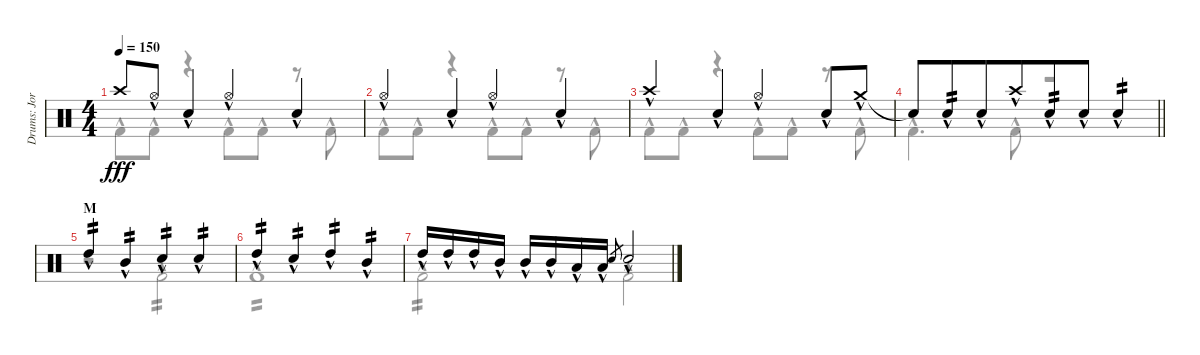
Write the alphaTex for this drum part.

\track ("Drums: Jorg" "Drums: Jor") {instrument percussion}
\staff {score}
\articulation defaults
\voice
\ts (4 4)
\tempo 150
\clef neutral
\ks c "Crash high (hit)"{t}.8{dy fff} "Hi-Hat (open)"{hac}.8{beam merge} "Snare (hit) 2"{hac}.4 "Hi-Hat (open)"{hac}.4{beam merge} "Snare (hit) 2"{hac}.4
|
"Hi-Hat (open)"{hac}.4{beam merge} "Snare (hit) 2"{hac}.4 "Hi-Hat (open)"{hac}.4{beam merge} "Snare (hit) 2"{hac}.4 |
"Crash high (hit)"{hac}.4{beam merge} "Snare (hit) 2"{hac}.4 "Hi-Hat (open)"{hac}.4{beam merge} "Snare (hit) 2"{hac}.8 "Crash medium (hit)"{hac}.8 |
\barLineRight lightlight "Snare (hit)"{t}.8{beam merge} "Snare (hit) 2"{hac}.8{tp 2 beam merge} "Snare (hit) 2"{hac}.8 "Crash high (hit)"{hac}.8{beam merge} "Snare (hit) 2"{hac}.8{tp 2} "Snare (hit) 2"{hac}.8 "Snare (hit) 2"{hac}.4{tp 2}
|
\section ("" "M")
"High Tom (hit)"{hac}.4{tp 2} "Mid Tom (hit)"{hac}.4{tp 2} "Electric Snare (hit)"{hac}.4{tp 2} "Snare (hit) 2"{hac}.4{tp 2} |
"High Tom (hit)"{hac}.4{tp 2} "Electric Snare (hit)"{hac}.4{tp 2} "High Tom (hit)"{hac}.4{tp 2} "Mid Tom (hit)"{hac}.4{tp 2} |
"High Tom (hit)"{hac}.16 "High Tom (hit)"{hac}.16 "High Tom (hit)"{hac}.16 "Mid Tom (hit)"{hac}.16 "Mid Tom (hit)"{hac}.16 "Mid Tom (hit)"{hac}.16 "Low Tom (hit)"{hac}.16 "Low Tom (hit)"{hac}.16 "Electric Snare (hit)".8{gr} "Snare (hit) 2"{hac}.2
\voice
\clef neutral
\ottava regular
\simile none
\ks c "Kick (hit) 2"{hac}.8{dy fff} "Kick (hit) 2"{hac}.8
r.4 "Kick (hit) 2"{hac}.8 "Kick (hit) 2"{hac}.8 r.8 "Kick (hit) 2"{hac}.8 |
"Kick (hit) 2"{hac}.8 "Kick (hit) 2"{hac}.8 r.4 "Kick (hit) 2"{hac}.8 "Kick (hit) 2"{hac}.8 r.8 "Kick (hit) 2"{hac}.8 |
"Kick (hit) 2"{hac}.8 "Kick (hit) 2"{hac}.8 r.4 "Kick (hit) 2"{hac}.8 "Kick (hit) 2"{hac}.8 r.8 "Kick (hit) 2"{hac}.8 |
\barLineRight lightlight "Kick (hit) 2"{hac}.4{d} "Kick (hit) 2"{hac}.8
r.2 |
r.2 "Kick (hit) 2"{hac}.2{tp 2} |
"Kick (hit) 2"{hac}.1{tp 2} |
"Kick (hit) 2"{hac}.2{tp 2} "Kick (hit) 2"{hac}.2
